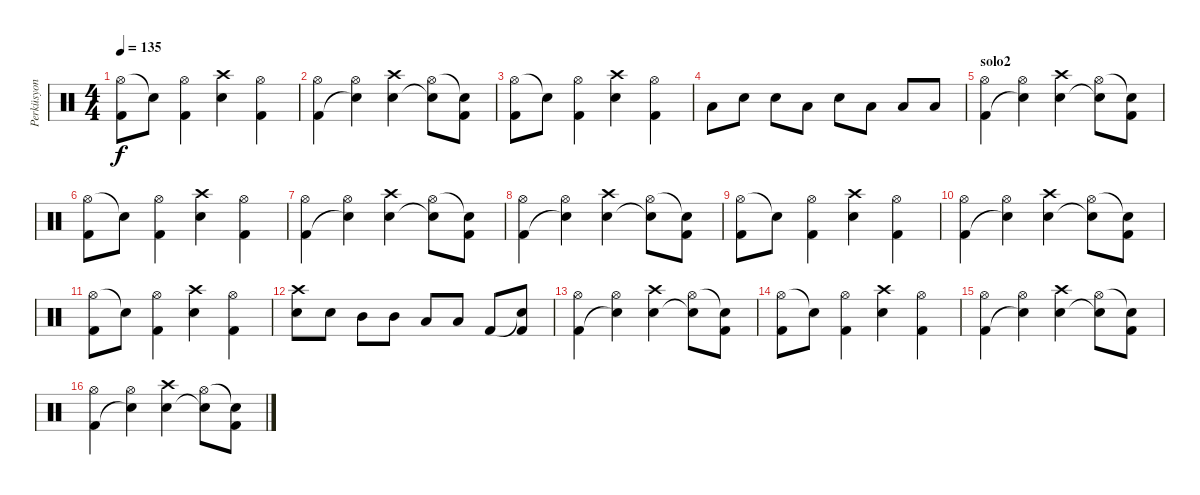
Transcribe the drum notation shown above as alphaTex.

\track ("Perküsyon" "Perküsyon") {instrument percussion}
\staff {score}
\articulation defaults
\ts (4 4)
\tempo 135
\clef neutral
\ks c
("Hi-Hat (open)" "Kick (hit) 2").8{dy f} "Snare (hit)"{t}.8 ("Hi-Hat (open)" "Kick (hit) 2").4 ("Crash high (hit)" "Snare (hit) 2").4 ("Hi-Hat (open)" "Kick (hit) 2").4 |
("Hi-Hat (open)" "Kick (hit) 2").4 ("Hi-Hat (open)" "Snare (hit)"{t}).4 ("Crash high (hit)" "Snare (hit) 2").4 ("Hi-Hat (open)" "Snare (hit)"{t}).8 ("Snare (hit)"{t} "Kick (hit) 2").8 |
("Hi-Hat (open)" "Kick (hit) 2").8 "Snare (hit)"{t}.8 ("Hi-Hat (open)" "Kick (hit) 2").4 ("Crash high (hit)" "Snare (hit) 2").4 ("Hi-Hat (open)" "Kick (hit) 2").4 |
"Low Tom (hit)".8 "Snare (hit) 2".8 "Snare (hit) 2".8 "Low Tom (hit)".8 "Snare (hit) 2".8 "Low Tom (hit)".8 "Low Tom (hit)".8 "Low Tom (hit)".8 |
\section ("" "solo2")
("Hi-Hat (open)" "Kick (hit) 2").4 ("Hi-Hat (open)" "Snare (hit)"{t}).4 ("Crash high (hit)" "Snare (hit) 2").4 ("Hi-Hat (open)" "Snare (hit)"{t}).8 ("Snare (hit)"{t} "Kick (hit) 2").8 |
("Hi-Hat (open)" "Kick (hit) 2").8 "Snare (hit)"{t}.8 ("Hi-Hat (open)" "Kick (hit) 2").4 ("Crash high (hit)" "Snare (hit) 2").4 ("Hi-Hat (open)" "Kick (hit) 2").4 |
("Hi-Hat (open)" "Kick (hit) 2").4 ("Hi-Hat (open)" "Snare (hit)"{t}).4 ("Crash high (hit)" "Snare (hit) 2").4 ("Hi-Hat (open)" "Snare (hit)"{t}).8 ("Snare (hit)"{t} "Kick (hit) 2").8 |
("Hi-Hat (open)" "Kick (hit) 2").4 ("Hi-Hat (open)" "Snare (hit)"{t}).4 ("Crash high (hit)" "Snare (hit) 2").4 ("Hi-Hat (open)" "Snare (hit)"{t}).8 ("Snare (hit)"{t} "Kick (hit) 2").8 |
("Hi-Hat (open)" "Kick (hit) 2").8 "Snare (hit)"{t}.8 ("Hi-Hat (open)" "Kick (hit) 2").4 ("Crash high (hit)" "Snare (hit) 2").4 ("Hi-Hat (open)" "Kick (hit) 2").4 |
("Hi-Hat (open)" "Kick (hit) 2").4 ("Hi-Hat (open)" "Snare (hit)"{t}).4 ("Crash high (hit)" "Snare (hit) 2").4 ("Hi-Hat (open)" "Snare (hit)"{t}).8 ("Snare (hit)"{t} "Kick (hit) 2").8 |
("Hi-Hat (open)" "Kick (hit) 2").8 "Snare (hit)"{t}.8 ("Hi-Hat (open)" "Kick (hit) 2").4 ("Crash high (hit)" "Snare (hit) 2").4 ("Hi-Hat (open)" "Kick (hit) 2").4 |
("Crash high (hit)" "Snare (hit) 2").8 "Snare (hit) 2".8 "Mid Tom (hit)".8 "Mid Tom (hit)".8 "Low Tom (hit)".8 "Low Tom (hit)".8 "Kick (hit) 2".8 ("Snare (hit)"{t} "Kick (hit) 2").8 |
("Hi-Hat (open)" "Kick (hit) 2").4 ("Hi-Hat (open)" "Snare (hit)"{t}).4 ("Crash high (hit)" "Snare (hit) 2").4 ("Hi-Hat (open)" "Snare (hit)"{t}).8 ("Snare (hit)"{t} "Kick (hit) 2").8 |
("Hi-Hat (open)" "Kick (hit) 2").8 "Snare (hit)"{t}.8 ("Hi-Hat (open)" "Kick (hit) 2").4 ("Crash high (hit)" "Snare (hit) 2").4 ("Hi-Hat (open)" "Kick (hit) 2").4 |
("Hi-Hat (open)" "Kick (hit) 2").4 ("Hi-Hat (open)" "Snare (hit)"{t}).4 ("Crash high (hit)" "Snare (hit) 2").4 ("Hi-Hat (open)" "Snare (hit)"{t}).8 ("Snare (hit)"{t} "Kick (hit) 2").8 |
("Hi-Hat (open)" "Kick (hit) 2").4 ("Hi-Hat (open)" "Snare (hit)"{t}).4 ("Crash high (hit)" "Snare (hit) 2").4 ("Hi-Hat (open)" "Snare (hit)"{t}).8 ("Snare (hit)"{t} "Kick (hit) 2").8
